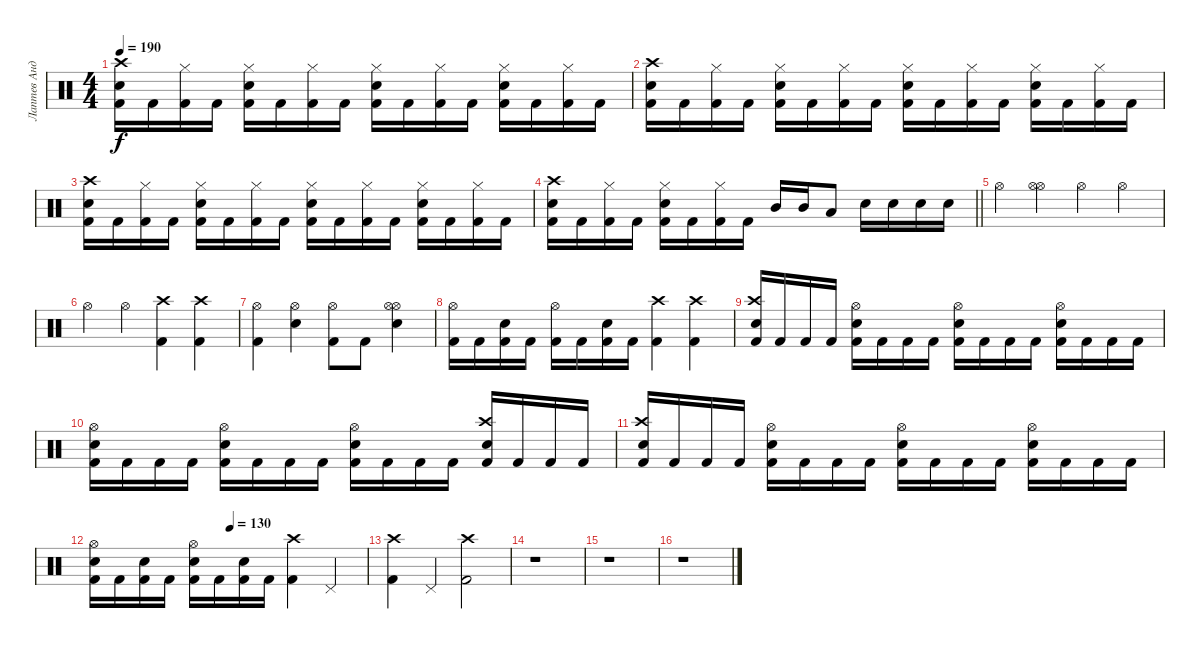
\track ("Лаптев Андрей" "Лаптев Анд") {instrument percussion}
\staff {score}
\articulation defaults
\ts (4 4)
\tempo 190
\clef neutral
\ks c
("Electric Snare (hit)" "Crash high (hit)" "Kick (hit) 2").16{dy f} "Kick (hit) 2".16 ("Hi-Hat (closed)" "Kick (hit) 2").16 "Kick (hit) 2".16 ("Electric Snare (hit)" "Hi-Hat (closed)" "Kick (hit) 2").16 "Kick (hit) 2".16 ("Hi-Hat (closed)" "Kick (hit) 2").16 "Kick (hit) 2".16 ("Electric Snare (hit)" "Hi-Hat (closed)" "Kick (hit) 2").16 "Kick (hit) 2".16 ("Hi-Hat (closed)" "Kick (hit) 2").16 "Kick (hit) 2".16 ("Electric Snare (hit)" "Hi-Hat (closed)" "Kick (hit) 2").16 "Kick (hit) 2".16 ("Hi-Hat (closed)" "Kick (hit) 2").16 "Kick (hit) 2".16 |
("Electric Snare (hit)" "Crash high (hit)" "Kick (hit) 2").16 "Kick (hit) 2".16 ("Hi-Hat (closed)" "Kick (hit) 2").16 "Kick (hit) 2".16 ("Electric Snare (hit)" "Hi-Hat (closed)" "Kick (hit) 2").16 "Kick (hit) 2".16 ("Hi-Hat (closed)" "Kick (hit) 2").16 "Kick (hit) 2".16 ("Electric Snare (hit)" "Hi-Hat (closed)" "Kick (hit) 2").16 "Kick (hit) 2".16 ("Hi-Hat (closed)" "Kick (hit) 2").16 "Kick (hit) 2".16 ("Electric Snare (hit)" "Hi-Hat (closed)" "Kick (hit) 2").16 "Kick (hit) 2".16 ("Hi-Hat (closed)" "Kick (hit) 2").16 "Kick (hit) 2".16 |
("Crash high (hit)" "Electric Snare (hit)" "Kick (hit) 2").16 "Kick (hit) 2".16 ("Hi-Hat (closed)" "Kick (hit) 2").16 "Kick (hit) 2".16 ("Hi-Hat (closed)" "Electric Snare (hit)" "Kick (hit) 2").16 "Kick (hit) 2".16 ("Hi-Hat (closed)" "Kick (hit) 2").16 "Kick (hit) 2".16 ("Hi-Hat (closed)" "Electric Snare (hit)" "Kick (hit) 2").16 "Kick (hit) 2".16 ("Hi-Hat (closed)" "Kick (hit) 2").16 "Kick (hit) 2".16 ("Hi-Hat (closed)" "Electric Snare (hit)" "Kick (hit) 2").16 "Kick (hit) 2".16 ("Hi-Hat (closed)" "Kick (hit) 2").16 "Kick (hit) 2".16 |
\barLineRight lightlight
("Crash high (hit)" "Electric Snare (hit)" "Kick (hit) 2").16 "Kick (hit) 2".16 ("Hi-Hat (closed)" "Kick (hit) 2").16 "Kick (hit) 2".16 ("Hi-Hat (closed)" "Electric Snare (hit)" "Kick (hit) 2").16 "Kick (hit) 2".16 ("Hi-Hat (closed)" "Kick (hit) 2").16 "Kick (hit) 2".16 "Mid Tom (hit)".16 "Mid Tom (hit)".16 "Low Tom (hit)".8 "Electric Snare (hit)".16 "Electric Snare (hit)".16 "Electric Snare (hit)".16 "Electric Snare (hit)".16 |
"Hi-Hat (open)".4 ("Hi-Hat (open)" "Hi-Hat (open)").4 "Hi-Hat (open)".4 "Hi-Hat (open)".4 |
"Hi-Hat (open)".4 "Hi-Hat (open)".4 ("Crash high (hit)" "Kick (hit) 2").4 ("Crash high (hit)" "Kick (hit) 2").4 |
("Hi-Hat (open)" "Kick (hit) 2").4 ("Electric Snare (hit)" "Hi-Hat (open)").4 ("Hi-Hat (open)" "Kick (hit) 2").8 "Kick (hit) 2".8 ("Electric Snare (hit)" "Hi-Hat (open)" "Hi-Hat (open)").4 |
("Hi-Hat (open)" "Kick (hit) 2").16 "Kick (hit) 2".16 ("Electric Snare (hit)" "Kick (hit) 2").16 "Kick (hit) 2".16 ("Hi-Hat (open)" "Kick (hit) 2").16 "Kick (hit) 2".16 ("Electric Snare (hit)" "Kick (hit) 2").16 "Kick (hit) 2".16 ("Crash high (hit)" "Kick (hit) 2").4 ("Crash high (hit)" "Kick (hit) 2").4 |
("Electric Snare (hit)" "Crash high (hit)" "Kick (hit) 2").16 "Kick (hit) 2".16 "Kick (hit) 2".16 "Kick (hit) 2".16 ("Hi-Hat (open)" "Electric Snare (hit)" "Kick (hit) 2").16 "Kick (hit) 2".16 "Kick (hit) 2".16 "Kick (hit) 2".16 ("Electric Snare (hit)" "Hi-Hat (open)" "Kick (hit) 2").16 "Kick (hit) 2".16 "Kick (hit) 2".16 "Kick (hit) 2".16 ("Electric Snare (hit)" "Hi-Hat (open)" "Kick (hit) 2").16 "Kick (hit) 2".16 "Kick (hit) 2".16 "Kick (hit) 2".16 |
("Electric Snare (hit)" "Hi-Hat (open)" "Kick (hit) 2").16 "Kick (hit) 2".16 "Kick (hit) 2".16 "Kick (hit) 2".16 ("Hi-Hat (open)" "Electric Snare (hit)" "Kick (hit) 2").16 "Kick (hit) 2".16 "Kick (hit) 2".16 "Kick (hit) 2".16 ("Electric Snare (hit)" "Hi-Hat (open)" "Kick (hit) 2").16 "Kick (hit) 2".16 "Kick (hit) 2".16 "Kick (hit) 2".16 ("Crash high (hit)" "Electric Snare (hit)" "Kick (hit) 2").16 "Kick (hit) 2".16 "Kick (hit) 2".16 "Kick (hit) 2".16 |
("Electric Snare (hit)" "Crash high (hit)" "Kick (hit) 2").16 "Kick (hit) 2".16 "Kick (hit) 2".16 "Kick (hit) 2".16 ("Electric Snare (hit)" "Hi-Hat (open)" "Kick (hit) 2").16 "Kick (hit) 2".16 "Kick (hit) 2".16 "Kick (hit) 2".16 ("Electric Snare (hit)" "Hi-Hat (open)" "Kick (hit) 2").16 "Kick (hit) 2".16 "Kick (hit) 2".16 "Kick (hit) 2".16 ("Electric Snare (hit)" "Hi-Hat (open)" "Kick (hit) 2").16 "Kick (hit) 2".16 "Kick (hit) 2".16 "Kick (hit) 2".16 |
\tempo (130 0.5)
("Electric Snare (hit)" "Hi-Hat (open)" "Kick (hit) 2").16 "Kick (hit) 2".16 ("Electric Snare (hit)" "Kick (hit) 2").16 "Kick (hit) 2".16 ("Electric Snare (hit)" "Hi-Hat (open)" "Kick (hit) 2").16 "Kick (hit) 2".16 ("Electric Snare (hit)" "Kick (hit) 2").16 "Kick (hit) 2".16 ("Crash high (hit)" "Kick (hit) 2").4 "Pedal Hi-Hat (hit)".4 |
("Crash high (hit)" "Kick (hit) 2").4 "Pedal Hi-Hat (hit)".4 ("Crash high (hit)" "Kick (hit) 2").2 |
r.1 |
r.1 |
r.1
